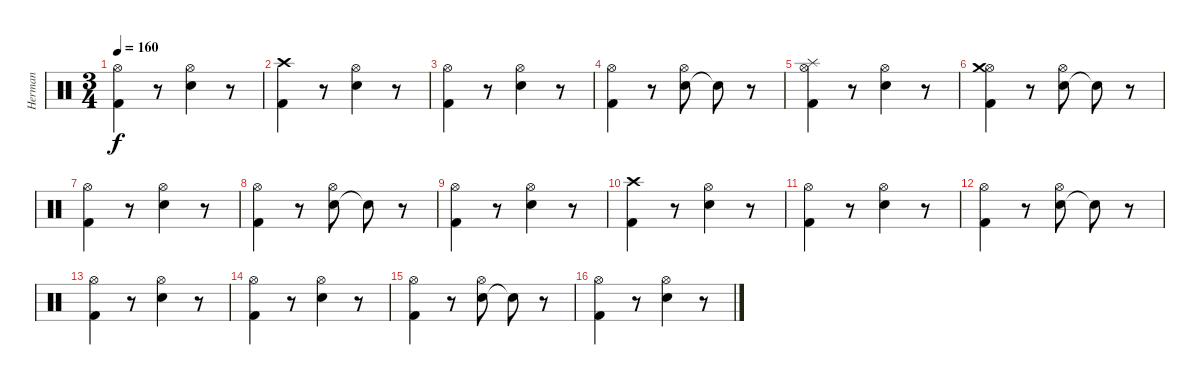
\track ("Herman" "Herman") {instrument percussion}
\staff {score}
\articulation defaults
\ts (3 4)
\tempo 160
\clef neutral
\ks c
("Kick (hit) 2" "Hi-Hat (open)").4{dy f} r.8 ("Electric Snare (hit)" "Hi-Hat (open)").4 r.8 |
("Kick (hit) 2" "Crash high (hit)").4 r.8 ("Electric Snare (hit)" "Hi-Hat (open)").4 r.8 |
("Kick (hit) 2" "Hi-Hat (open)").4 r.8 ("Electric Snare (hit)" "Hi-Hat (open)").4 r.8 |
("Kick (hit) 2" "Hi-Hat (open)").4 r.8 ("Electric Snare (hit)" "Hi-Hat (open)").8 "Snare (hit)"{t}.8 r.8 |
("Kick (hit) 2" "Hi-Hat (open)" "Splash (hit)").4 r.8 ("Electric Snare (hit)" "Hi-Hat (open)").4 r.8 |
("Kick (hit) 2" "Hi-Hat (open)" "Crash medium (hit)").4 r.8 ("Electric Snare (hit)" "Hi-Hat (open)").8 "Snare (hit)"{t}.8 r.8 |
("Kick (hit) 2" "Hi-Hat (open)").4 r.8 ("Electric Snare (hit)" "Hi-Hat (open)").4 r.8 |
("Kick (hit) 2" "Hi-Hat (open)").4 r.8 ("Electric Snare (hit)" "Hi-Hat (open)").8 "Snare (hit)"{t}.8 r.8 |
("Kick (hit) 2" "Hi-Hat (open)").4 r.8 ("Electric Snare (hit)" "Hi-Hat (open)").4 r.8 |
("Kick (hit) 2" "Crash high (hit)").4 r.8 ("Electric Snare (hit)" "Hi-Hat (open)").4 r.8 |
("Kick (hit) 2" "Hi-Hat (open)").4 r.8 ("Electric Snare (hit)" "Hi-Hat (open)").4 r.8 |
("Kick (hit) 2" "Hi-Hat (open)").4 r.8 ("Electric Snare (hit)" "Hi-Hat (open)").8 "Snare (hit)"{t}.8 r.8 |
("Kick (hit) 2" "Hi-Hat (open)").4 r.8 ("Electric Snare (hit)" "Hi-Hat (open)").4 r.8 |
("Kick (hit) 2" "Hi-Hat (open)").4 r.8 ("Electric Snare (hit)" "Hi-Hat (open)").4 r.8 |
("Kick (hit) 2" "Hi-Hat (open)").4 r.8 ("Electric Snare (hit)" "Hi-Hat (open)").8 "Snare (hit)"{t}.8 r.8 |
("Kick (hit) 2" "Hi-Hat (open)").4 r.8 ("Electric Snare (hit)" "Hi-Hat (open)").4 r.8
